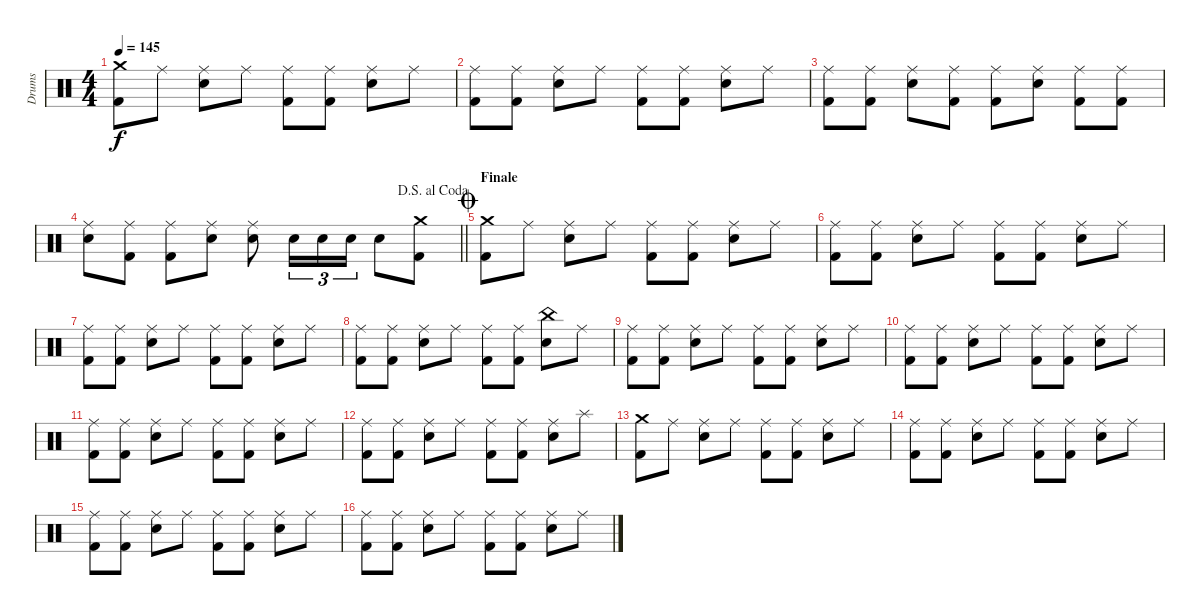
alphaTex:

\track ("Drums" "Drums") {instrument percussion}
\staff {score}
\articulation defaults
\ts (4 4)
\tempo 145
\clef neutral
\ks c
("Crash medium (hit)" "Kick (hit) 2").8{dy f} "Ride (middle)".8 ("Ride (middle)" "Snare (hit) 2").8 "Ride (middle)".8 ("Ride (middle)" "Kick (hit) 2").8 ("Ride (middle)" "Kick (hit) 2").8 ("Ride (middle)" "Snare (hit) 2").8 "Ride (middle)".8 |
("Ride (middle)" "Kick (hit) 2").8 ("Ride (middle)" "Kick (hit) 2").8 ("Ride (middle)" "Snare (hit) 2").8 "Ride (middle)".8 ("Ride (middle)" "Kick (hit) 2").8 ("Ride (middle)" "Kick (hit) 2").8 ("Ride (middle)" "Snare (hit) 2").8 "Ride (middle)".8 |
("Ride (middle)" "Kick (hit) 2").8 ("Ride (middle)" "Kick (hit) 2").8 ("Ride (middle)" "Snare (hit) 2").8 ("Ride (middle)" "Kick (hit) 2").8 ("Ride (middle)" "Kick (hit) 2").8 ("Ride (middle)" "Snare (hit) 2").8 ("Ride (middle)" "Kick (hit) 2").8 ("Ride (middle)" "Kick (hit) 2").8 |
\jump dalsegnoalcoda
\barLineRight lightlight
("Ride (middle)" "Snare (hit) 2").8 ("Ride (middle)" "Kick (hit) 2").8 ("Ride (middle)" "Kick (hit) 2").8 ("Ride (middle)" "Snare (hit) 2").8 ("Ride (middle)" "Snare (hit) 2").8 "Snare (hit) 2".16{tu (3 2)} "Snare (hit) 2".16{tu (3 2)} "Snare (hit) 2".16{tu (3 2)} "Snare (hit) 2".8 ("Crash medium (hit)" "Kick (hit) 2").8 |
\section ("" "Finale")
\jump coda
("Crash medium (hit)" "Kick (hit) 2").8 "Ride (middle)".8 ("Ride (middle)" "Snare (hit) 2").8 "Ride (middle)".8 ("Ride (middle)" "Kick (hit) 2").8 ("Ride (middle)" "Kick (hit) 2").8 ("Ride (middle)" "Snare (hit) 2").8 "Ride (middle)".8 |
("Ride (middle)" "Kick (hit) 2").8 ("Ride (middle)" "Kick (hit) 2").8 ("Ride (middle)" "Snare (hit) 2").8 "Ride (middle)".8 ("Ride (middle)" "Kick (hit) 2").8 ("Ride (middle)" "Kick (hit) 2").8 ("Ride (middle)" "Snare (hit) 2").8 "Ride (middle)".8 |
("Ride (middle)" "Kick (hit) 2").8 ("Ride (middle)" "Kick (hit) 2").8 ("Ride (middle)" "Snare (hit) 2").8 "Ride (middle)".8 ("Ride (middle)" "Kick (hit) 2").8 ("Ride (middle)" "Kick (hit) 2").8 ("Ride (middle)" "Snare (hit) 2").8 "Ride (middle)".8 |
("Ride (middle)" "Kick (hit) 2").8 ("Ride (middle)" "Kick (hit) 2").8 ("Ride (middle)" "Snare (hit) 2").8 "Ride (middle)".8 ("Ride (middle)" "Kick (hit) 2").8 ("Ride (middle)" "Kick (hit) 2").8 ("China (hit)" "Snare (hit) 2").8 "Ride (middle)".8 |
("Ride (middle)" "Kick (hit) 2").8 ("Ride (middle)" "Kick (hit) 2").8 ("Ride (middle)" "Snare (hit) 2").8 "Ride (middle)".8 ("Ride (middle)" "Kick (hit) 2").8 ("Ride (middle)" "Kick (hit) 2").8 ("Ride (middle)" "Snare (hit) 2").8 "Ride (middle)".8 |
("Ride (middle)" "Kick (hit) 2").8 ("Ride (middle)" "Kick (hit) 2").8 ("Ride (middle)" "Snare (hit) 2").8 "Ride (middle)".8 ("Ride (middle)" "Kick (hit) 2").8 ("Ride (middle)" "Kick (hit) 2").8 ("Ride (middle)" "Snare (hit) 2").8 "Ride (middle)".8 |
("Ride (middle)" "Kick (hit) 2").8 ("Ride (middle)" "Kick (hit) 2").8 ("Ride (middle)" "Snare (hit) 2").8 "Ride (middle)".8 ("Ride (middle)" "Kick (hit) 2").8 ("Ride (middle)" "Kick (hit) 2").8 ("Ride (middle)" "Snare (hit) 2").8 "Ride (middle)".8 |
("Ride (middle)" "Kick (hit) 2").8 ("Ride (middle)" "Kick (hit) 2").8 ("Ride (middle)" "Snare (hit) 2").8 "Ride (middle)".8 ("Ride (middle)" "Kick (hit) 2").8 ("Ride (middle)" "Kick (hit) 2").8 ("Ride (middle)" "Snare (hit) 2").8 "Splash (hit)".8 |
("Crash medium (hit)" "Kick (hit) 2").8 "Ride (middle)".8 ("Ride (middle)" "Snare (hit) 2").8 "Ride (middle)".8 ("Ride (middle)" "Kick (hit) 2").8 ("Ride (middle)" "Kick (hit) 2").8 ("Ride (middle)" "Snare (hit) 2").8 "Ride (middle)".8 |
("Ride (middle)" "Kick (hit) 2").8 ("Ride (middle)" "Kick (hit) 2").8 ("Ride (middle)" "Snare (hit) 2").8 "Ride (middle)".8 ("Ride (middle)" "Kick (hit) 2").8 ("Ride (middle)" "Kick (hit) 2").8 ("Ride (middle)" "Snare (hit) 2").8 "Ride (middle)".8 |
("Ride (middle)" "Kick (hit) 2").8 ("Ride (middle)" "Kick (hit) 2").8 ("Ride (middle)" "Snare (hit) 2").8 "Ride (middle)".8 ("Ride (middle)" "Kick (hit) 2").8 ("Ride (middle)" "Kick (hit) 2").8 ("Ride (middle)" "Snare (hit) 2").8 "Ride (middle)".8 |
("Ride (middle)" "Kick (hit) 2").8 ("Ride (middle)" "Kick (hit) 2").8 ("Ride (middle)" "Snare (hit) 2").8 "Ride (middle)".8 ("Ride (middle)" "Kick (hit) 2").8 ("Ride (middle)" "Kick (hit) 2").8 ("Ride (middle)" "Snare (hit) 2").8 "Ride (middle)".8
